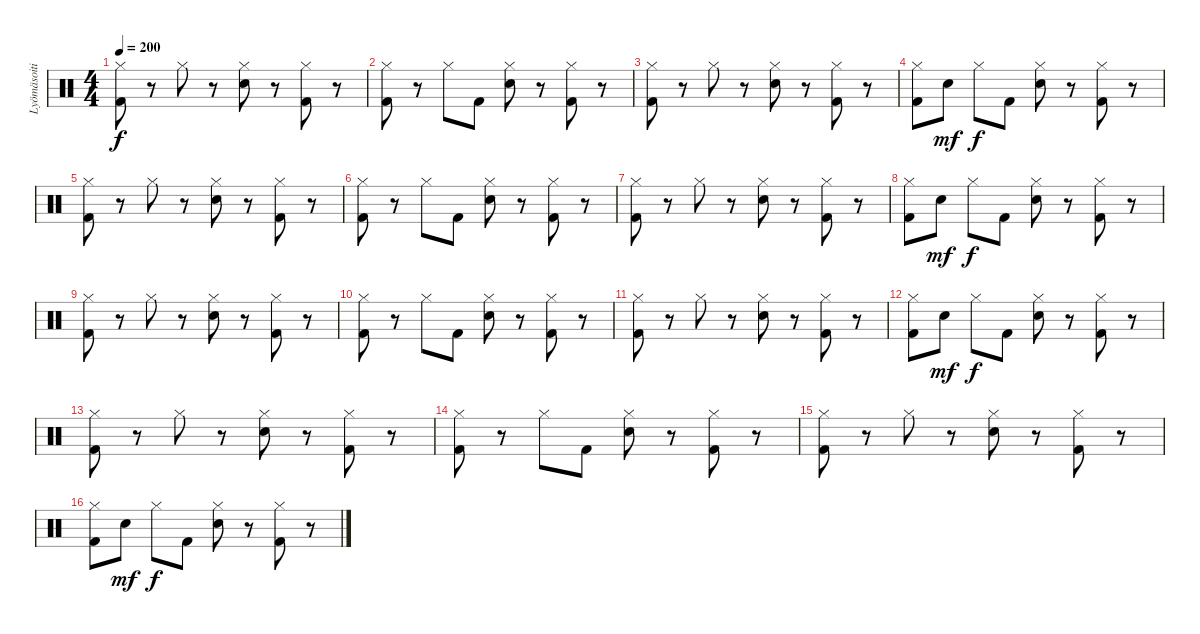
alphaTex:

\track ("Lyömäsoitin" "Lyömäsoiti") {instrument percussion}
\staff {score}
\articulation defaults
\ts (4 4)
\tempo 200
\clef neutral
\ks c
("Kick (hit) 2" "Hi-Hat (closed)").8{dy f} r.8 "Hi-Hat (closed)".8 r.8 ("Snare (hit) 2" "Hi-Hat (closed)").8 r.8 ("Hi-Hat (closed)" "Kick (hit) 2").8 r.8 |
("Kick (hit) 2" "Hi-Hat (closed)").8 r.8 "Hi-Hat (closed)".8 "Kick (hit) 2".8 ("Snare (hit) 2" "Hi-Hat (closed)").8 r.8 ("Kick (hit) 2" "Hi-Hat (closed)").8 r.8 |
("Kick (hit) 2" "Hi-Hat (closed)").8 r.8 "Hi-Hat (closed)".8 r.8 ("Snare (hit) 2" "Hi-Hat (closed)").8 r.8 ("Hi-Hat (closed)" "Kick (hit) 2").8 r.8 |
("Kick (hit) 2" "Hi-Hat (closed)").8 "Snare (hit) 2".8{dy mf} "Hi-Hat (closed)".8{dy f} "Kick (hit) 2".8 ("Snare (hit) 2" "Hi-Hat (closed)").8 r.8 ("Kick (hit) 2" "Hi-Hat (closed)").8 r.8 |
("Kick (hit) 2" "Hi-Hat (closed)").8 r.8 "Hi-Hat (closed)".8 r.8 ("Snare (hit) 2" "Hi-Hat (closed)").8 r.8 ("Hi-Hat (closed)" "Kick (hit) 2").8 r.8 |
("Kick (hit) 2" "Hi-Hat (closed)").8 r.8 "Hi-Hat (closed)".8 "Kick (hit) 2".8 ("Snare (hit) 2" "Hi-Hat (closed)").8 r.8 ("Kick (hit) 2" "Hi-Hat (closed)").8 r.8 |
("Kick (hit) 2" "Hi-Hat (closed)").8 r.8 "Hi-Hat (closed)".8 r.8 ("Snare (hit) 2" "Hi-Hat (closed)").8 r.8 ("Hi-Hat (closed)" "Kick (hit) 2").8 r.8 |
("Kick (hit) 2" "Hi-Hat (closed)").8 "Snare (hit) 2".8{dy mf} "Hi-Hat (closed)".8{dy f} "Kick (hit) 2".8 ("Snare (hit) 2" "Hi-Hat (closed)").8 r.8 ("Kick (hit) 2" "Hi-Hat (closed)").8 r.8 |
("Kick (hit) 2" "Hi-Hat (closed)").8 r.8 "Hi-Hat (closed)".8 r.8 ("Snare (hit) 2" "Hi-Hat (closed)").8 r.8 ("Hi-Hat (closed)" "Kick (hit) 2").8 r.8 |
("Kick (hit) 2" "Hi-Hat (closed)").8 r.8 "Hi-Hat (closed)".8 "Kick (hit) 2".8 ("Snare (hit) 2" "Hi-Hat (closed)").8 r.8 ("Kick (hit) 2" "Hi-Hat (closed)").8 r.8 |
("Kick (hit) 2" "Hi-Hat (closed)").8 r.8 "Hi-Hat (closed)".8 r.8 ("Snare (hit) 2" "Hi-Hat (closed)").8 r.8 ("Hi-Hat (closed)" "Kick (hit) 2").8 r.8 |
("Kick (hit) 2" "Hi-Hat (closed)").8 "Snare (hit) 2".8{dy mf} "Hi-Hat (closed)".8{dy f} "Kick (hit) 2".8 ("Snare (hit) 2" "Hi-Hat (closed)").8 r.8 ("Kick (hit) 2" "Hi-Hat (closed)").8 r.8 |
("Kick (hit) 2" "Hi-Hat (closed)").8 r.8 "Hi-Hat (closed)".8 r.8 ("Snare (hit) 2" "Hi-Hat (closed)").8 r.8 ("Hi-Hat (closed)" "Kick (hit) 2").8 r.8 |
("Kick (hit) 2" "Hi-Hat (closed)").8 r.8 "Hi-Hat (closed)".8 "Kick (hit) 2".8 ("Snare (hit) 2" "Hi-Hat (closed)").8 r.8 ("Kick (hit) 2" "Hi-Hat (closed)").8 r.8 |
("Kick (hit) 2" "Hi-Hat (closed)").8 r.8 "Hi-Hat (closed)".8 r.8 ("Snare (hit) 2" "Hi-Hat (closed)").8 r.8 ("Hi-Hat (closed)" "Kick (hit) 2").8 r.8 |
("Kick (hit) 2" "Hi-Hat (closed)").8 "Snare (hit) 2".8{dy mf} "Hi-Hat (closed)".8{dy f} "Kick (hit) 2".8 ("Snare (hit) 2" "Hi-Hat (closed)").8 r.8 ("Kick (hit) 2" "Hi-Hat (closed)").8 r.8
